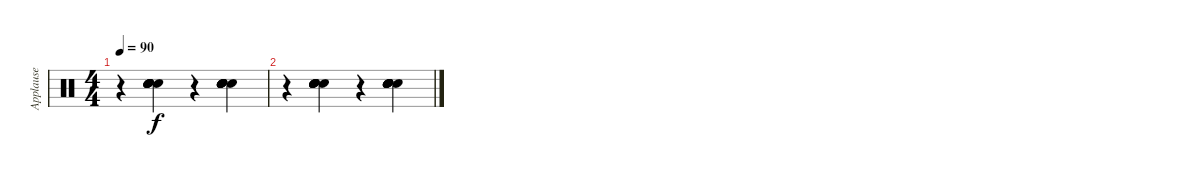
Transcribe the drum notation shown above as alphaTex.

\track ("Applause" "Applause") {instrument percussion}
\staff {score}
\articulation defaults
\ts (4 4)
\tempo 90
\clef neutral
\ks c
r.4{dy f} ("Hand Clap (hit)" "Hand Clap (hit)" "Hand Clap (hit)" "Hand Clap (hit)" "Hand Clap (hit)" "Hand Clap (hit)").4 r.4 ("Hand Clap (hit)" "Hand Clap (hit)" "Hand Clap (hit)" "Hand Clap (hit)" "Hand Clap (hit)" "Hand Clap (hit)").4 |
r.4 ("Hand Clap (hit)" "Hand Clap (hit)" "Hand Clap (hit)" "Hand Clap (hit)" "Hand Clap (hit)" "Hand Clap (hit)").4 r.4 ("Hand Clap (hit)" "Hand Clap (hit)" "Hand Clap (hit)" "Hand Clap (hit)" "Hand Clap (hit)" "Hand Clap (hit)").4
